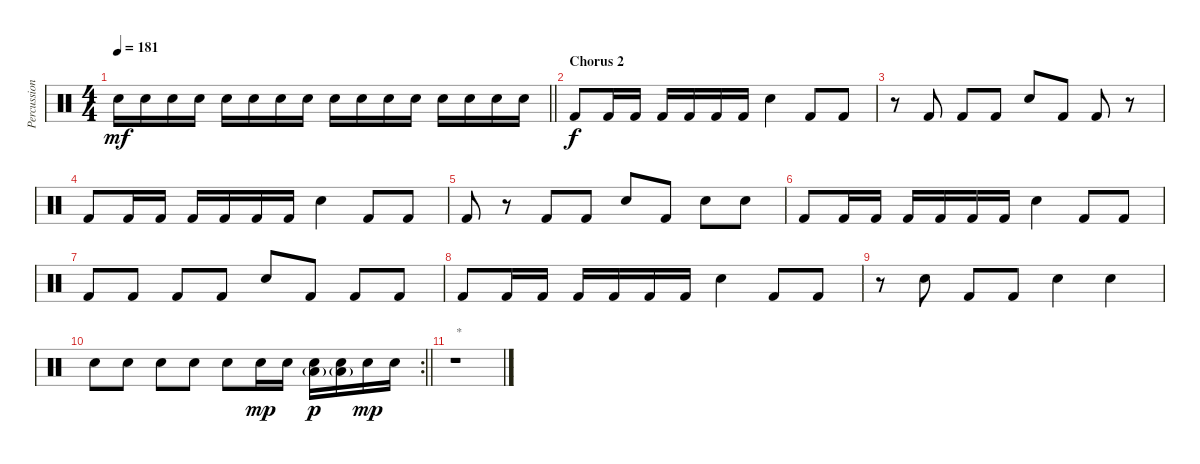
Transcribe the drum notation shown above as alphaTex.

\track ("Percussions" "Percussion") {instrument percussion}
\staff {score}
\articulation defaults
\ts (4 4)
\tempo 181
\clef neutral
\barLineRight lightlight
\ks c "Snare (hit) 2".16{dy mf} "Snare (hit) 2".16 "Snare (hit) 2".16 "Snare (hit) 2".16 "Snare (hit) 2".16 "Snare (hit) 2".16 "Snare (hit) 2".16 "Snare (hit) 2".16 "Snare (hit) 2".16 "Snare (hit) 2".16 "Snare (hit) 2".16 "Snare (hit) 2".16 "Snare (hit) 2".16 "Snare (hit) 2".16 "Snare (hit) 2".16 "Snare (hit) 2".16
|
\section ("" "Chorus 2")
"Kick (hit) 2".8{dy f} "Kick (hit) 2".16 "Kick (hit) 2".16 "Kick (hit) 2".16 "Kick (hit) 2".16 "Kick (hit) 2".16 "Kick (hit) 2".16 "Snare (hit) 2".4 "Kick (hit) 2".8 "Kick (hit) 2".8 |
r.8 "Kick (hit) 2".8 "Kick (hit) 2".8 "Kick (hit) 2".8 "Snare (hit) 2".8 "Kick (hit) 2".8 "Kick (hit) 2".8 r.8 |
"Kick (hit) 2".8 "Kick (hit) 2".16 "Kick (hit) 2".16 "Kick (hit) 2".16 "Kick (hit) 2".16 "Kick (hit) 2".16 "Kick (hit) 2".16 "Snare (hit) 2".4 "Kick (hit) 2".8 "Kick (hit) 2".8 |
"Kick (hit) 2".8 r.8 "Kick (hit) 2".8 "Kick (hit) 2".8 "Snare (hit) 2".8 "Kick (hit) 2".8 "Snare (hit) 2".8 "Snare (hit) 2".8 |
"Kick (hit) 2".8 "Kick (hit) 2".16 "Kick (hit) 2".16 "Kick (hit) 2".16 "Kick (hit) 2".16 "Kick (hit) 2".16 "Kick (hit) 2".16 "Snare (hit) 2".4 "Kick (hit) 2".8 "Kick (hit) 2".8 |
"Kick (hit) 2".8 "Kick (hit) 2".8 "Kick (hit) 2".8 "Kick (hit) 2".8 "Snare (hit) 2".8 "Kick (hit) 2".8 "Kick (hit) 2".8 "Kick (hit) 2".8 |
"Kick (hit) 2".8 "Kick (hit) 2".16 "Kick (hit) 2".16 "Kick (hit) 2".16 "Kick (hit) 2".16 "Kick (hit) 2".16 "Kick (hit) 2".16 "Snare (hit) 2".4 "Kick (hit) 2".8 "Kick (hit) 2".8 |
r.8 "Snare (hit) 2".8 "Kick (hit) 2".8 "Kick (hit) 2".8 "Snare (hit) 2".4 "Snare (hit) 2".4 |
\rc 2
\barLineRight lightlight "Snare (hit) 2".8 "Snare (hit) 2".8 "Snare (hit) 2".8 "Snare (hit) 2".8 "Snare (hit) 2".8 "Snare (hit) 2".16{dy mp} "Snare (hit) 2".16
("Low Tom (hit)"{g} "Snare (hit) 2").16{dy p} ("Low Tom (hit)"{g} "Snare (hit) 2").16 "Snare (hit) 2".16{dy mp} "Snare (hit) 2".16 |
r.1{txt "*"}
